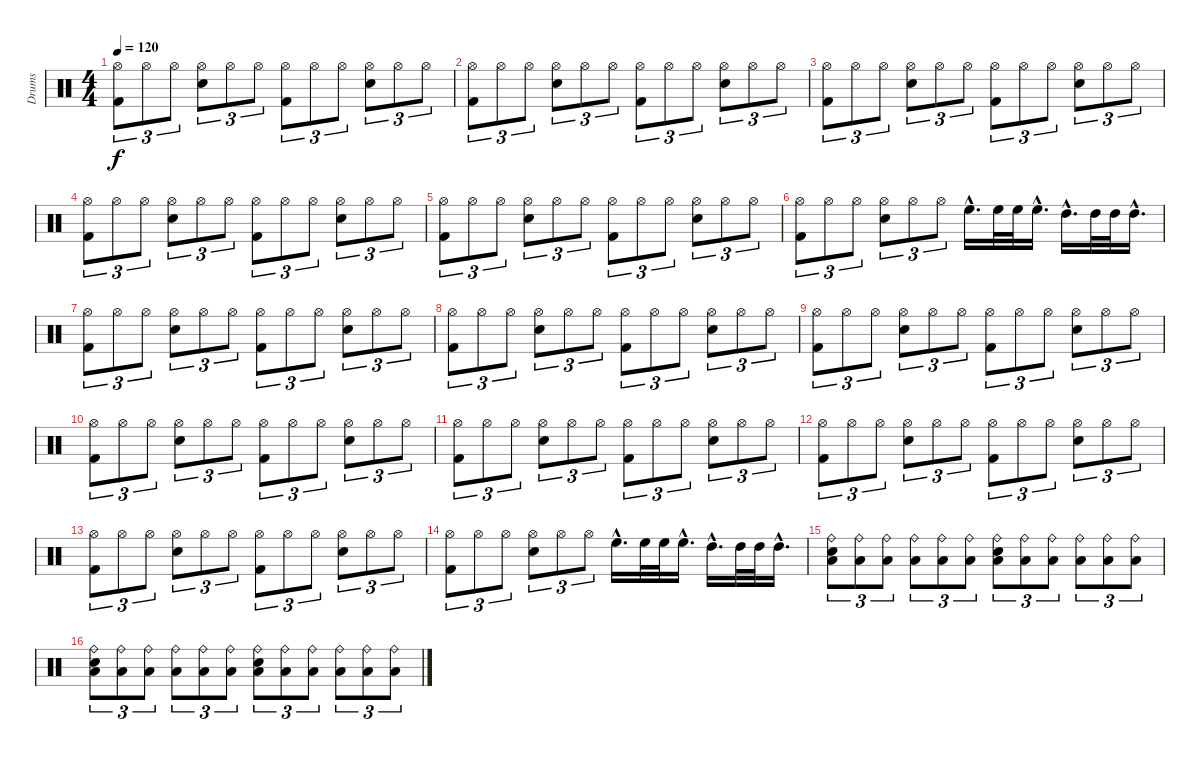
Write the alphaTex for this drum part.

\track ("Drums" "Drums") {instrument percussion}
\staff {score}
\articulation defaults
\ts (4 4)
\tempo 120
\clef neutral
\ks c
("Hi-Hat (open)" "Kick (hit) 2").8{tu (3 2) dy f} "Hi-Hat (open)".8{tu (3 2)} "Hi-Hat (open)".8{tu (3 2)} ("Hi-Hat (open)" "Snare (hit) 2").8{tu (3 2)} "Hi-Hat (open)".8{tu (3 2)} "Hi-Hat (open)".8{tu (3 2)} ("Hi-Hat (open)" "Kick (hit) 2").8{tu (3 2)} "Hi-Hat (open)".8{tu (3 2)} "Hi-Hat (open)".8{tu (3 2)} ("Hi-Hat (open)" "Snare (hit) 2").8{tu (3 2)} "Hi-Hat (open)".8{tu (3 2)} "Hi-Hat (open)".8{tu (3 2)} |
("Hi-Hat (open)" "Kick (hit) 2").8{tu (3 2)} "Hi-Hat (open)".8{tu (3 2)} "Hi-Hat (open)".8{tu (3 2)} ("Hi-Hat (open)" "Snare (hit) 2").8{tu (3 2)} "Hi-Hat (open)".8{tu (3 2)} "Hi-Hat (open)".8{tu (3 2)} ("Hi-Hat (open)" "Kick (hit) 2").8{tu (3 2)} "Hi-Hat (open)".8{tu (3 2)} "Hi-Hat (open)".8{tu (3 2)} ("Hi-Hat (open)" "Snare (hit) 2").8{tu (3 2)} "Hi-Hat (open)".8{tu (3 2)} "Hi-Hat (open)".8{tu (3 2)} |
("Hi-Hat (open)" "Kick (hit) 2").8{tu (3 2)} "Hi-Hat (open)".8{tu (3 2)} "Hi-Hat (open)".8{tu (3 2)} ("Hi-Hat (open)" "Snare (hit) 2").8{tu (3 2)} "Hi-Hat (open)".8{tu (3 2)} "Hi-Hat (open)".8{tu (3 2)} ("Hi-Hat (open)" "Kick (hit) 2").8{tu (3 2)} "Hi-Hat (open)".8{tu (3 2)} "Hi-Hat (open)".8{tu (3 2)} ("Hi-Hat (open)" "Snare (hit) 2").8{tu (3 2)} "Hi-Hat (open)".8{tu (3 2)} "Hi-Hat (open)".8{tu (3 2)} |
("Hi-Hat (open)" "Kick (hit) 2").8{tu (3 2)} "Hi-Hat (open)".8{tu (3 2)} "Hi-Hat (open)".8{tu (3 2)} ("Hi-Hat (open)" "Snare (hit) 2").8{tu (3 2)} "Hi-Hat (open)".8{tu (3 2)} "Hi-Hat (open)".8{tu (3 2)} ("Hi-Hat (open)" "Kick (hit) 2").8{tu (3 2)} "Hi-Hat (open)".8{tu (3 2)} "Hi-Hat (open)".8{tu (3 2)} ("Hi-Hat (open)" "Snare (hit) 2").8{tu (3 2)} "Hi-Hat (open)".8{tu (3 2)} "Hi-Hat (open)".8{tu (3 2)} |
("Hi-Hat (open)" "Kick (hit) 2").8{tu (3 2)} "Hi-Hat (open)".8{tu (3 2)} "Hi-Hat (open)".8{tu (3 2)} ("Hi-Hat (open)" "Snare (hit) 2").8{tu (3 2)} "Hi-Hat (open)".8{tu (3 2)} "Hi-Hat (open)".8{tu (3 2)} ("Hi-Hat (open)" "Kick (hit) 2").8{tu (3 2)} "Hi-Hat (open)".8{tu (3 2)} "Hi-Hat (open)".8{tu (3 2)} ("Hi-Hat (open)" "Snare (hit) 2").8{tu (3 2)} "Hi-Hat (open)".8{tu (3 2)} "Hi-Hat (open)".8{tu (3 2)} |
("Hi-Hat (open)" "Kick (hit) 2").8{tu (3 2)} "Hi-Hat (open)".8{tu (3 2)} "Hi-Hat (open)".8{tu (3 2)} ("Hi-Hat (open)" "Snare (hit) 2").8{tu (3 2)} "Hi-Hat (open)".8{tu (3 2)} "Hi-Hat (open)".8{tu (3 2)} "High Floor Tom (hit)"{hac}.16{d} "High Floor Tom (hit)".32 "High Floor Tom (hit)".32 "High Floor Tom (hit)"{hac}.16{d} "High Tom (hit)"{hac}.16{d} "High Tom (hit)".32 "High Tom (hit)".32 "High Tom (hit)"{hac}.16{d} |
("Hi-Hat (open)" "Kick (hit) 2").8{tu (3 2)} "Hi-Hat (open)".8{tu (3 2)} "Hi-Hat (open)".8{tu (3 2)} ("Hi-Hat (open)" "Snare (hit) 2").8{tu (3 2)} "Hi-Hat (open)".8{tu (3 2)} "Hi-Hat (open)".8{tu (3 2)} ("Hi-Hat (open)" "Kick (hit) 2").8{tu (3 2)} "Hi-Hat (open)".8{tu (3 2)} "Hi-Hat (open)".8{tu (3 2)} ("Hi-Hat (open)" "Snare (hit) 2").8{tu (3 2)} "Hi-Hat (open)".8{tu (3 2)} "Hi-Hat (open)".8{tu (3 2)} |
("Hi-Hat (open)" "Kick (hit) 2").8{tu (3 2)} "Hi-Hat (open)".8{tu (3 2)} "Hi-Hat (open)".8{tu (3 2)} ("Hi-Hat (open)" "Snare (hit) 2").8{tu (3 2)} "Hi-Hat (open)".8{tu (3 2)} "Hi-Hat (open)".8{tu (3 2)} ("Hi-Hat (open)" "Kick (hit) 2").8{tu (3 2)} "Hi-Hat (open)".8{tu (3 2)} "Hi-Hat (open)".8{tu (3 2)} ("Hi-Hat (open)" "Snare (hit) 2").8{tu (3 2)} "Hi-Hat (open)".8{tu (3 2)} "Hi-Hat (open)".8{tu (3 2)} |
("Hi-Hat (open)" "Kick (hit) 2").8{tu (3 2)} "Hi-Hat (open)".8{tu (3 2)} "Hi-Hat (open)".8{tu (3 2)} ("Hi-Hat (open)" "Snare (hit) 2").8{tu (3 2)} "Hi-Hat (open)".8{tu (3 2)} "Hi-Hat (open)".8{tu (3 2)} ("Hi-Hat (open)" "Kick (hit) 2").8{tu (3 2)} "Hi-Hat (open)".8{tu (3 2)} "Hi-Hat (open)".8{tu (3 2)} ("Hi-Hat (open)" "Snare (hit) 2").8{tu (3 2)} "Hi-Hat (open)".8{tu (3 2)} "Hi-Hat (open)".8{tu (3 2)} |
("Hi-Hat (open)" "Kick (hit) 2").8{tu (3 2)} "Hi-Hat (open)".8{tu (3 2)} "Hi-Hat (open)".8{tu (3 2)} ("Hi-Hat (open)" "Snare (hit) 2").8{tu (3 2)} "Hi-Hat (open)".8{tu (3 2)} "Hi-Hat (open)".8{tu (3 2)} ("Hi-Hat (open)" "Kick (hit) 2").8{tu (3 2)} "Hi-Hat (open)".8{tu (3 2)} "Hi-Hat (open)".8{tu (3 2)} ("Hi-Hat (open)" "Snare (hit) 2").8{tu (3 2)} "Hi-Hat (open)".8{tu (3 2)} "Hi-Hat (open)".8{tu (3 2)} |
("Hi-Hat (open)" "Kick (hit) 2").8{tu (3 2)} "Hi-Hat (open)".8{tu (3 2)} "Hi-Hat (open)".8{tu (3 2)} ("Hi-Hat (open)" "Snare (hit) 2").8{tu (3 2)} "Hi-Hat (open)".8{tu (3 2)} "Hi-Hat (open)".8{tu (3 2)} ("Hi-Hat (open)" "Kick (hit) 2").8{tu (3 2)} "Hi-Hat (open)".8{tu (3 2)} "Hi-Hat (open)".8{tu (3 2)} ("Hi-Hat (open)" "Snare (hit) 2").8{tu (3 2)} "Hi-Hat (open)".8{tu (3 2)} "Hi-Hat (open)".8{tu (3 2)} |
("Hi-Hat (open)" "Kick (hit) 2").8{tu (3 2)} "Hi-Hat (open)".8{tu (3 2)} "Hi-Hat (open)".8{tu (3 2)} ("Hi-Hat (open)" "Snare (hit) 2").8{tu (3 2)} "Hi-Hat (open)".8{tu (3 2)} "Hi-Hat (open)".8{tu (3 2)} ("Hi-Hat (open)" "Kick (hit) 2").8{tu (3 2)} "Hi-Hat (open)".8{tu (3 2)} "Hi-Hat (open)".8{tu (3 2)} ("Hi-Hat (open)" "Snare (hit) 2").8{tu (3 2)} "Hi-Hat (open)".8{tu (3 2)} "Hi-Hat (open)".8{tu (3 2)} |
("Hi-Hat (open)" "Kick (hit) 2").8{tu (3 2)} "Hi-Hat (open)".8{tu (3 2)} "Hi-Hat (open)".8{tu (3 2)} ("Hi-Hat (open)" "Snare (hit) 2").8{tu (3 2)} "Hi-Hat (open)".8{tu (3 2)} "Hi-Hat (open)".8{tu (3 2)} ("Hi-Hat (open)" "Kick (hit) 2").8{tu (3 2)} "Hi-Hat (open)".8{tu (3 2)} "Hi-Hat (open)".8{tu (3 2)} ("Hi-Hat (open)" "Snare (hit) 2").8{tu (3 2)} "Hi-Hat (open)".8{tu (3 2)} "Hi-Hat (open)".8{tu (3 2)} |
("Hi-Hat (open)" "Kick (hit) 2").8{tu (3 2)} "Hi-Hat (open)".8{tu (3 2)} "Hi-Hat (open)".8{tu (3 2)} ("Hi-Hat (open)" "Snare (hit) 2").8{tu (3 2)} "Hi-Hat (open)".8{tu (3 2)} "Hi-Hat (open)".8{tu (3 2)} "High Floor Tom (hit)"{hac}.16{d} "High Floor Tom (hit)".32 "High Floor Tom (hit)".32 "High Floor Tom (hit)"{hac}.16{d} "High Tom (hit)"{hac}.16{d} "High Tom (hit)".32 "High Tom (hit)".32 "High Tom (hit)"{hac}.16{d} |
("Ride (bell)" "Snare (hit) 2" "Low Floor Tom (hit)").8{tu (3 2)} ("Ride (bell)" "Low Floor Tom (hit)").8{tu (3 2)} ("Ride (bell)" "Low Floor Tom (hit)").8{tu (3 2)} ("Ride (bell)" "Low Floor Tom (hit)").8{tu (3 2)} ("Ride (bell)" "Low Floor Tom (hit)").8{tu (3 2)} ("Ride (bell)" "Low Floor Tom (hit)").8{tu (3 2)} ("Ride (bell)" "Snare (hit) 2" "Low Floor Tom (hit)").8{tu (3 2)} ("Ride (bell)" "Low Floor Tom (hit)").8{tu (3 2)} ("Ride (bell)" "Low Floor Tom (hit)").8{tu (3 2)} ("Ride (bell)" "Low Floor Tom (hit)").8{tu (3 2)} ("Ride (bell)" "Low Floor Tom (hit)").8{tu (3 2)} ("Ride (bell)" "Low Floor Tom (hit)").8{tu (3 2)} |
("Ride (bell)" "Snare (hit) 2" "Low Floor Tom (hit)").8{tu (3 2)} ("Ride (bell)" "Low Floor Tom (hit)").8{tu (3 2)} ("Ride (bell)" "Low Floor Tom (hit)").8{tu (3 2)} ("Ride (bell)" "Low Floor Tom (hit)").8{tu (3 2)} ("Ride (bell)" "Low Floor Tom (hit)").8{tu (3 2)} ("Ride (bell)" "Low Floor Tom (hit)").8{tu (3 2)} ("Ride (bell)" "Snare (hit) 2" "Low Floor Tom (hit)").8{tu (3 2)} ("Ride (bell)" "Low Floor Tom (hit)").8{tu (3 2)} ("Ride (bell)" "Low Floor Tom (hit)").8{tu (3 2)} ("Ride (bell)" "Low Floor Tom (hit)").8{tu (3 2)} ("Ride (bell)" "Low Floor Tom (hit)").8{tu (3 2)} ("Ride (bell)" "Low Floor Tom (hit)").8{tu (3 2)}
